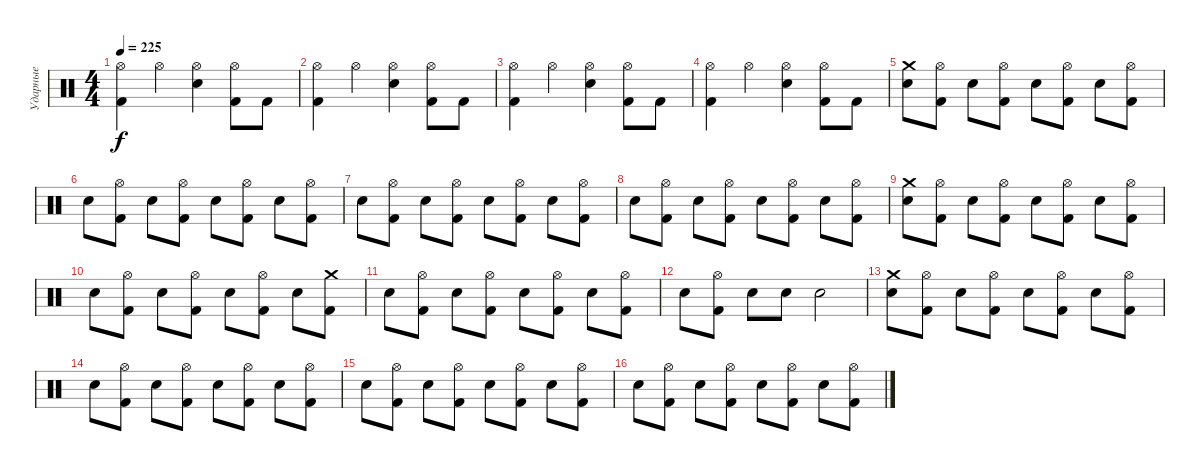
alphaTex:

\track ("Ударные" "Ударные") {instrument percussion}
\staff {score}
\articulation defaults
\ts (4 4)
\tempo 225
\clef neutral
\ks c
("Hi-Hat (open)" "Kick (hit) 2").4{dy f} "Hi-Hat (open)".4 ("Hi-Hat (open)" "Snare (hit) 2").4 ("Hi-Hat (open)" "Kick (hit) 2").8 "Kick (hit) 2".8 |
("Hi-Hat (open)" "Kick (hit) 2").4 "Hi-Hat (open)".4 ("Hi-Hat (open)" "Snare (hit) 2").4 ("Hi-Hat (open)" "Kick (hit) 2").8 "Kick (hit) 2".8 |
("Hi-Hat (open)" "Kick (hit) 2").4 "Hi-Hat (open)".4 ("Hi-Hat (open)" "Snare (hit) 2").4 ("Hi-Hat (open)" "Kick (hit) 2").8 "Kick (hit) 2".8 |
("Hi-Hat (open)" "Kick (hit) 2").4 "Hi-Hat (open)".4 ("Hi-Hat (open)" "Snare (hit) 2").4 ("Hi-Hat (open)" "Kick (hit) 2").8 "Kick (hit) 2".8 |
("Crash medium (hit)" "Snare (hit) 2").8 ("Hi-Hat (open)" "Kick (hit) 2").8 "Snare (hit) 2".8 ("Hi-Hat (open)" "Kick (hit) 2").8 "Snare (hit) 2".8 ("Hi-Hat (open)" "Kick (hit) 2").8 "Snare (hit) 2".8 ("Hi-Hat (open)" "Kick (hit) 2").8 |
"Snare (hit) 2".8 ("Hi-Hat (open)" "Kick (hit) 2").8 "Snare (hit) 2".8 ("Hi-Hat (open)" "Kick (hit) 2").8 "Snare (hit) 2".8 ("Hi-Hat (open)" "Kick (hit) 2").8 "Snare (hit) 2".8 ("Hi-Hat (open)" "Kick (hit) 2").8 |
"Snare (hit) 2".8 ("Hi-Hat (open)" "Kick (hit) 2").8 "Snare (hit) 2".8 ("Hi-Hat (open)" "Kick (hit) 2").8 "Snare (hit) 2".8 ("Hi-Hat (open)" "Kick (hit) 2").8 "Snare (hit) 2".8 ("Hi-Hat (open)" "Kick (hit) 2").8 |
"Snare (hit) 2".8 ("Hi-Hat (open)" "Kick (hit) 2").8 "Snare (hit) 2".8 ("Hi-Hat (open)" "Kick (hit) 2").8 "Snare (hit) 2".8 ("Hi-Hat (open)" "Kick (hit) 2").8 "Snare (hit) 2".8 ("Hi-Hat (open)" "Kick (hit) 2").8 |
("Crash medium (hit)" "Snare (hit) 2").8 ("Hi-Hat (open)" "Kick (hit) 2").8 "Snare (hit) 2".8 ("Hi-Hat (open)" "Kick (hit) 2").8 "Snare (hit) 2".8 ("Hi-Hat (open)" "Kick (hit) 2").8 "Snare (hit) 2".8 ("Hi-Hat (open)" "Kick (hit) 2").8 |
"Snare (hit) 2".8 ("Hi-Hat (open)" "Kick (hit) 2").8 "Snare (hit) 2".8 ("Hi-Hat (open)" "Kick (hit) 2").8 "Snare (hit) 2".8 ("Hi-Hat (open)" "Kick (hit) 2").8 "Snare (hit) 2".8 ("Crash medium (hit)" "Kick (hit) 2").8 |
"Snare (hit) 2".8 ("Hi-Hat (open)" "Kick (hit) 2").8 "Snare (hit) 2".8 ("Hi-Hat (open)" "Kick (hit) 2").8 "Snare (hit) 2".8 ("Hi-Hat (open)" "Kick (hit) 2").8 "Snare (hit) 2".8 ("Hi-Hat (open)" "Kick (hit) 2").8 |
"Snare (hit) 2".8 ("Hi-Hat (open)" "Kick (hit) 2").8 "Snare (hit) 2".8 "Snare (hit) 2".8 "Snare (hit) 2".2 |
("Crash medium (hit)" "Snare (hit) 2").8 ("Hi-Hat (open)" "Kick (hit) 2").8 "Snare (hit) 2".8 ("Hi-Hat (open)" "Kick (hit) 2").8 "Snare (hit) 2".8 ("Hi-Hat (open)" "Kick (hit) 2").8 "Snare (hit) 2".8 ("Hi-Hat (open)" "Kick (hit) 2").8 |
"Snare (hit) 2".8 ("Hi-Hat (open)" "Kick (hit) 2").8 "Snare (hit) 2".8 ("Hi-Hat (open)" "Kick (hit) 2").8 "Snare (hit) 2".8 ("Hi-Hat (open)" "Kick (hit) 2").8 "Snare (hit) 2".8 ("Hi-Hat (open)" "Kick (hit) 2").8 |
"Snare (hit) 2".8 ("Hi-Hat (open)" "Kick (hit) 2").8 "Snare (hit) 2".8 ("Hi-Hat (open)" "Kick (hit) 2").8 "Snare (hit) 2".8 ("Hi-Hat (open)" "Kick (hit) 2").8 "Snare (hit) 2".8 ("Hi-Hat (open)" "Kick (hit) 2").8 |
"Snare (hit) 2".8 ("Hi-Hat (open)" "Kick (hit) 2").8 "Snare (hit) 2".8 ("Hi-Hat (open)" "Kick (hit) 2").8 "Snare (hit) 2".8 ("Hi-Hat (open)" "Kick (hit) 2").8 "Snare (hit) 2".8 ("Hi-Hat (open)" "Kick (hit) 2").8
